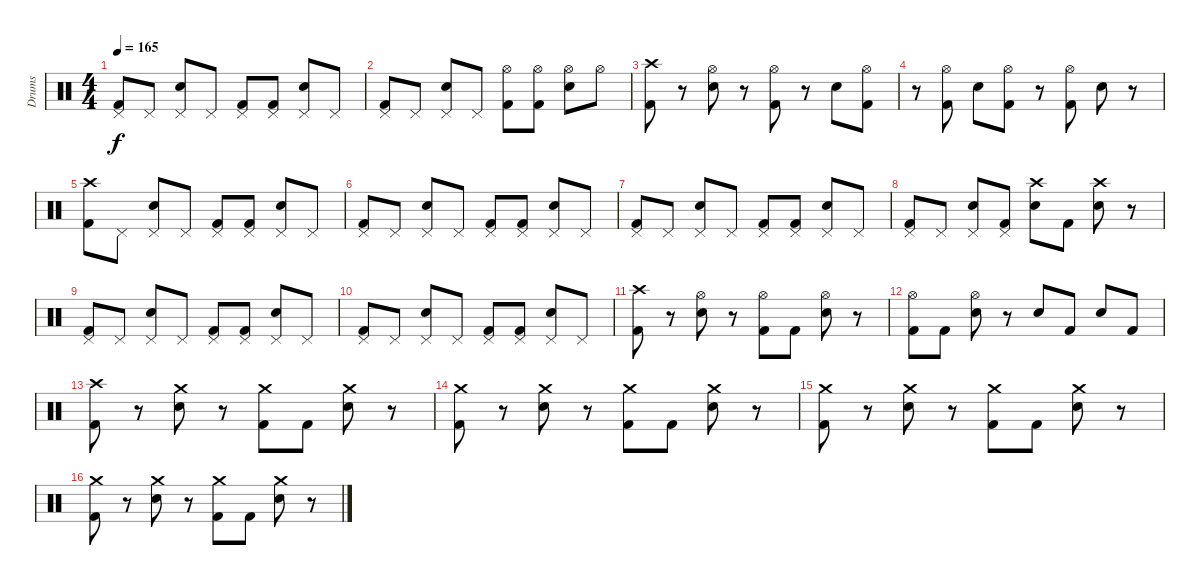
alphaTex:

\track ("Drums" "Drums") {instrument percussion}
\staff {score}
\articulation defaults
\ts (4 4)
\tempo 165
\clef neutral
\ks c
("Pedal Hi-Hat (hit)" "Kick (hit) 2").8{dy f} "Pedal Hi-Hat (hit)".8 ("Pedal Hi-Hat (hit)" "Electric Snare (hit)").8 "Pedal Hi-Hat (hit)".8 ("Pedal Hi-Hat (hit)" "Kick (hit) 2").8 ("Pedal Hi-Hat (hit)" "Kick (hit) 2").8 ("Pedal Hi-Hat (hit)" "Electric Snare (hit)").8 "Pedal Hi-Hat (hit)".8 |
("Pedal Hi-Hat (hit)" "Kick (hit) 2").8 "Pedal Hi-Hat (hit)".8 ("Pedal Hi-Hat (hit)" "Electric Snare (hit)").8 "Pedal Hi-Hat (hit)".8 ("Hi-Hat (open)" "Kick (hit) 2").8 ("Hi-Hat (open)" "Kick (hit) 2").8 ("Hi-Hat (open)" "Electric Snare (hit)").8 "Hi-Hat (open)".8 |
("Crash high (hit)" "Kick (hit) 2").8 r.8 ("Hi-Hat (open)" "Electric Snare (hit)").8 r.8 ("Hi-Hat (open)" "Kick (hit) 2").8 r.8 "Electric Snare (hit)".8 ("Hi-Hat (open)" "Kick (hit) 2").8 |
r.8 ("Hi-Hat (open)" "Kick (hit) 2").8 "Electric Snare (hit)".8 ("Hi-Hat (open)" "Kick (hit) 2").8 r.8 ("Hi-Hat (open)" "Kick (hit) 2").8 "Electric Snare (hit)".8 r.8 |
("Crash high (hit)" "Kick (hit) 2").8 "Pedal Hi-Hat (hit)".8 ("Pedal Hi-Hat (hit)" "Electric Snare (hit)").8 "Pedal Hi-Hat (hit)".8 ("Pedal Hi-Hat (hit)" "Kick (hit) 2").8 ("Pedal Hi-Hat (hit)" "Kick (hit) 2").8 ("Pedal Hi-Hat (hit)" "Electric Snare (hit)").8 "Pedal Hi-Hat (hit)".8 |
("Pedal Hi-Hat (hit)" "Kick (hit) 2").8 "Pedal Hi-Hat (hit)".8 ("Pedal Hi-Hat (hit)" "Electric Snare (hit)").8 "Pedal Hi-Hat (hit)".8 ("Pedal Hi-Hat (hit)" "Kick (hit) 2").8 ("Pedal Hi-Hat (hit)" "Kick (hit) 2").8 ("Pedal Hi-Hat (hit)" "Electric Snare (hit)").8 "Pedal Hi-Hat (hit)".8 |
("Pedal Hi-Hat (hit)" "Kick (hit) 2").8 "Pedal Hi-Hat (hit)".8 ("Pedal Hi-Hat (hit)" "Electric Snare (hit)").8 "Pedal Hi-Hat (hit)".8 ("Pedal Hi-Hat (hit)" "Kick (hit) 2").8 ("Pedal Hi-Hat (hit)" "Kick (hit) 2").8 ("Pedal Hi-Hat (hit)" "Electric Snare (hit)").8 "Pedal Hi-Hat (hit)".8 |
("Pedal Hi-Hat (hit)" "Kick (hit) 2").8 "Pedal Hi-Hat (hit)".8 ("Pedal Hi-Hat (hit)" "Electric Snare (hit)").8 ("Pedal Hi-Hat (hit)" "Kick (hit) 2").8 ("Crash high (hit)" "Electric Snare (hit)").8 "Kick (hit) 2".8 ("Crash high (hit)" "Electric Snare (hit)").8 r.8 |
("Pedal Hi-Hat (hit)" "Kick (hit) 2").8 "Pedal Hi-Hat (hit)".8 ("Pedal Hi-Hat (hit)" "Electric Snare (hit)").8 "Pedal Hi-Hat (hit)".8 ("Pedal Hi-Hat (hit)" "Kick (hit) 2").8 ("Pedal Hi-Hat (hit)" "Kick (hit) 2").8 ("Pedal Hi-Hat (hit)" "Electric Snare (hit)").8 "Pedal Hi-Hat (hit)".8 |
("Pedal Hi-Hat (hit)" "Kick (hit) 2").8 "Pedal Hi-Hat (hit)".8 ("Pedal Hi-Hat (hit)" "Electric Snare (hit)").8 "Pedal Hi-Hat (hit)".8 ("Pedal Hi-Hat (hit)" "Kick (hit) 2").8 ("Pedal Hi-Hat (hit)" "Kick (hit) 2").8 ("Pedal Hi-Hat (hit)" "Electric Snare (hit)").8 "Pedal Hi-Hat (hit)".8 |
("Crash high (hit)" "Kick (hit) 2").8 r.8 ("Hi-Hat (open)" "Electric Snare (hit)").8 r.8 ("Hi-Hat (open)" "Kick (hit) 2").8 "Kick (hit) 2".8 ("Hi-Hat (open)" "Electric Snare (hit)").8 r.8 |
("Hi-Hat (open)" "Kick (hit) 2").8 "Kick (hit) 2".8 ("Hi-Hat (open)" "Electric Snare (hit)").8 r.8 "Electric Snare (hit)".8 "Kick (hit) 2".8 "Electric Snare (hit)".8 "Kick (hit) 2".8 |
("Crash high (hit)" "Kick (hit) 2").8 r.8 ("Crash medium (hit)" "Electric Snare (hit)").8 r.8 ("Crash medium (hit)" "Kick (hit) 2").8 "Kick (hit) 2".8 ("Crash medium (hit)" "Electric Snare (hit)").8 r.8 |
("Crash medium (hit)" "Kick (hit) 2").8 r.8 ("Crash medium (hit)" "Electric Snare (hit)").8 r.8 ("Crash medium (hit)" "Kick (hit) 2").8 "Kick (hit) 2".8 ("Crash medium (hit)" "Electric Snare (hit)").8 r.8 |
("Crash medium (hit)" "Kick (hit) 2").8 r.8 ("Crash medium (hit)" "Electric Snare (hit)").8 r.8 ("Crash medium (hit)" "Kick (hit) 2").8 "Kick (hit) 2".8 ("Crash medium (hit)" "Electric Snare (hit)").8 r.8 |
("Crash medium (hit)" "Kick (hit) 2").8 r.8 ("Crash medium (hit)" "Electric Snare (hit)").8 r.8 ("Crash medium (hit)" "Kick (hit) 2").8 "Kick (hit) 2".8 ("Crash medium (hit)" "Electric Snare (hit)").8 r.8
